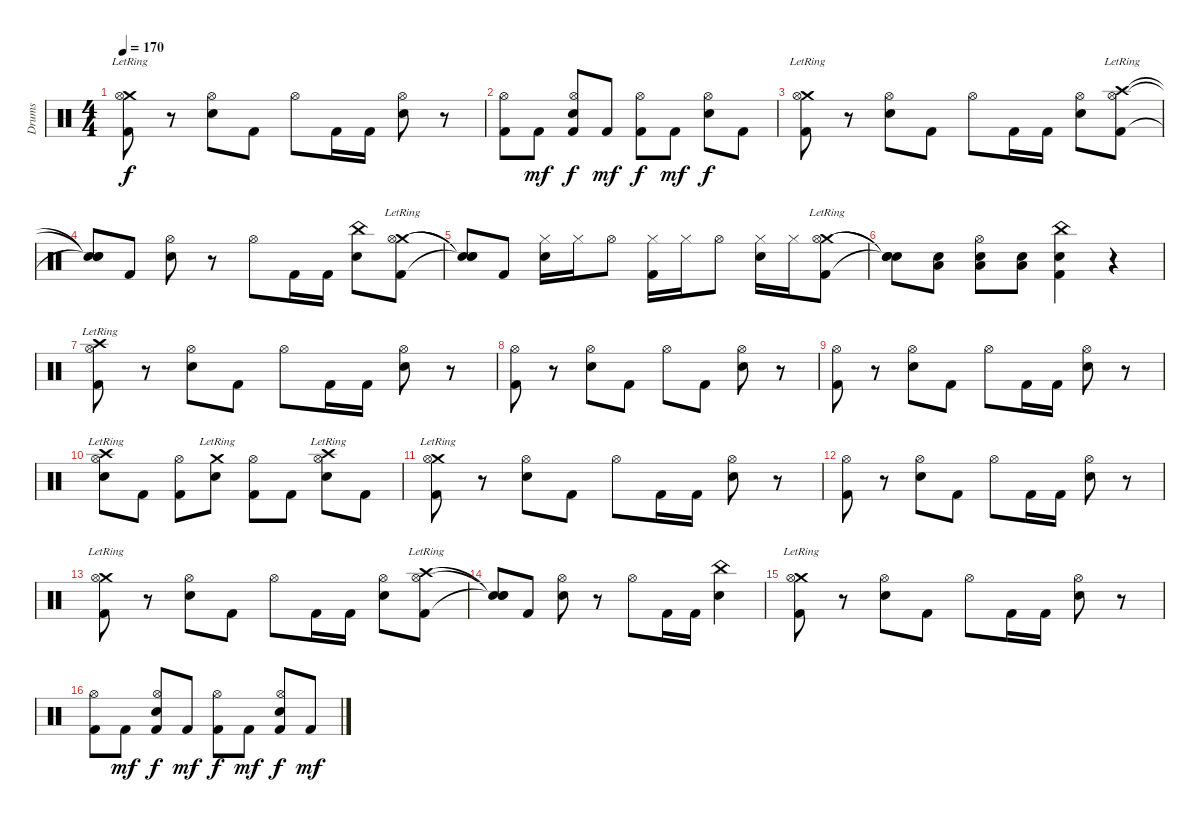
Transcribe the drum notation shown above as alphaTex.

\track ("Drums" "Drums") {instrument percussion}
\staff {score}
\articulation defaults
\ts (4 4)
\tempo 170
\clef neutral
\ks c
("Crash medium (hit)"{lr} "Kick (hit) 2" "Hi-Hat (open)").8{dy f} r.8 ("Electric Snare (hit)" "Hi-Hat (open)").8 "Kick (hit) 2".8 "Hi-Hat (open)".8 "Kick (hit) 2".16 "Kick (hit) 2".16 ("Electric Snare (hit)" "Hi-Hat (open)").8 r.8 |
("Kick (hit) 2" "Hi-Hat (open)").8 "Kick (hit) 2".8{dy mf} ("Electric Snare (hit)" "Kick (hit) 2" "Hi-Hat (open)").8{dy f} "Kick (hit) 2".8{dy mf} ("Kick (hit) 2" "Hi-Hat (open)").8{dy f} "Kick (hit) 2".8{dy mf} ("Electric Snare (hit)" "Hi-Hat (open)").8{dy f} "Kick (hit) 2".8 |
("Crash medium (hit)"{lr} "Kick (hit) 2" "Hi-Hat (open)").8 r.8 ("Electric Snare (hit)" "Hi-Hat (open)").8 "Kick (hit) 2".8 "Hi-Hat (open)".8 "Kick (hit) 2".16 "Kick (hit) 2".16 ("Electric Snare (hit)" "Hi-Hat (open)").8 ("Crash high (hit)"{lr} "Kick (hit) 2" "Hi-Hat (open)").8 |
("Snare (hit)"{t} "Snare (hit)"{t} "Snare (hit)"{t}).8 "Kick (hit) 2".8 ("Electric Snare (hit)" "Hi-Hat (open)").8 r.8 "Hi-Hat (open)".8 "Kick (hit) 2".16 "Kick (hit) 2".16 ("China (hit)" "Electric Snare (hit)").8 ("Crash medium (hit)"{lr} "Kick (hit) 2" "Hi-Hat (open)").8 |
("Snare (hit)"{t} "Snare (hit)"{t} "Snare (hit)"{t}).8 "Kick (hit) 2".8 ("Electric Snare (hit)" "Hi-Hat (closed)").16 "Hi-Hat (closed)".16 "Hi-Hat (open)".8 ("Kick (hit) 2" "Hi-Hat (closed)").16 "Hi-Hat (closed)".16 "Hi-Hat (open)".8 ("Electric Snare (hit)" "Hi-Hat (closed)").16 "Hi-Hat (closed)".16 ("Crash medium (hit)"{lr} "Kick (hit) 2" "Hi-Hat (open)").8 |
("Snare (hit)"{t} "Snare (hit)"{t} "Snare (hit)"{t}).8 ("Electric Snare (hit)" "Low Floor Tom (hit)").8 ("Electric Snare (hit)" "Low Floor Tom (hit)" "Hi-Hat (open)").8 ("Electric Snare (hit)" "Low Floor Tom (hit)").8 ("China (hit)" "Electric Snare (hit)" "Kick (hit) 2").4 r.4 |
("Crash high (hit)"{lr} "Kick (hit) 2" "Hi-Hat (open)").8 r.8 ("Electric Snare (hit)" "Hi-Hat (open)").8 "Kick (hit) 2".8 "Hi-Hat (open)".8 "Kick (hit) 2".16 "Kick (hit) 2".16 ("Electric Snare (hit)" "Hi-Hat (open)").8 r.8 |
("Kick (hit) 2" "Hi-Hat (open)").8 r.8 ("Electric Snare (hit)" "Hi-Hat (open)").8 "Kick (hit) 2".8 "Hi-Hat (open)".8 "Kick (hit) 2".8 ("Electric Snare (hit)" "Hi-Hat (open)").8 r.8 |
("Kick (hit) 2" "Hi-Hat (open)").8 r.8 ("Electric Snare (hit)" "Hi-Hat (open)").8 "Kick (hit) 2".8 "Hi-Hat (open)".8 "Kick (hit) 2".16 "Kick (hit) 2".16 ("Electric Snare (hit)" "Hi-Hat (open)").8 r.8 |
("Crash high (hit)"{lr} "Electric Snare (hit)" "Hi-Hat (open)").8 "Kick (hit) 2".8 ("Kick (hit) 2" "Hi-Hat (open)").8 ("Crash medium (hit)"{lr} "Electric Snare (hit)").8 ("Kick (hit) 2" "Hi-Hat (open)").8 "Kick (hit) 2".8 ("Crash high (hit)"{lr} "Electric Snare (hit)" "Hi-Hat (open)").8 "Kick (hit) 2".8 |
("Crash medium (hit)"{lr} "Kick (hit) 2" "Hi-Hat (open)").8 r.8 ("Electric Snare (hit)" "Hi-Hat (open)").8 "Kick (hit) 2".8 "Hi-Hat (open)".8 "Kick (hit) 2".16 "Kick (hit) 2".16 ("Electric Snare (hit)" "Hi-Hat (open)").8 r.8 |
("Kick (hit) 2" "Hi-Hat (open)").8 r.8 ("Electric Snare (hit)" "Hi-Hat (open)").8 "Kick (hit) 2".8 "Hi-Hat (open)".8 "Kick (hit) 2".16 "Kick (hit) 2".16 ("Electric Snare (hit)" "Hi-Hat (open)").8 r.8 |
("Crash medium (hit)"{lr} "Kick (hit) 2" "Hi-Hat (open)").8 r.8 ("Electric Snare (hit)" "Hi-Hat (open)").8 "Kick (hit) 2".8 "Hi-Hat (open)".8 "Kick (hit) 2".16 "Kick (hit) 2".16 ("Electric Snare (hit)" "Hi-Hat (open)").8 ("Crash high (hit)"{lr} "Kick (hit) 2" "Hi-Hat (open)").8 |
("Snare (hit)"{t} "Snare (hit)"{t} "Snare (hit)"{t}).8 "Kick (hit) 2".8 ("Electric Snare (hit)" "Hi-Hat (open)").8 r.8 "Hi-Hat (open)".8 "Kick (hit) 2".16 "Kick (hit) 2".16 ("China (hit)" "Electric Snare (hit)").4 |
("Crash medium (hit)"{lr} "Kick (hit) 2" "Hi-Hat (open)").8 r.8 ("Electric Snare (hit)" "Hi-Hat (open)").8 "Kick (hit) 2".8 "Hi-Hat (open)".8 "Kick (hit) 2".16 "Kick (hit) 2".16 ("Electric Snare (hit)" "Hi-Hat (open)").8 r.8 |
("Kick (hit) 2" "Hi-Hat (open)").8 "Kick (hit) 2".8{dy mf} ("Electric Snare (hit)" "Kick (hit) 2" "Hi-Hat (open)").8{dy f} "Kick (hit) 2".8{dy mf} ("Kick (hit) 2" "Hi-Hat (open)").8{dy f} "Kick (hit) 2".8{dy mf} ("Electric Snare (hit)" "Kick (hit) 2" "Hi-Hat (open)").8{dy f} "Kick (hit) 2".8{dy mf}
